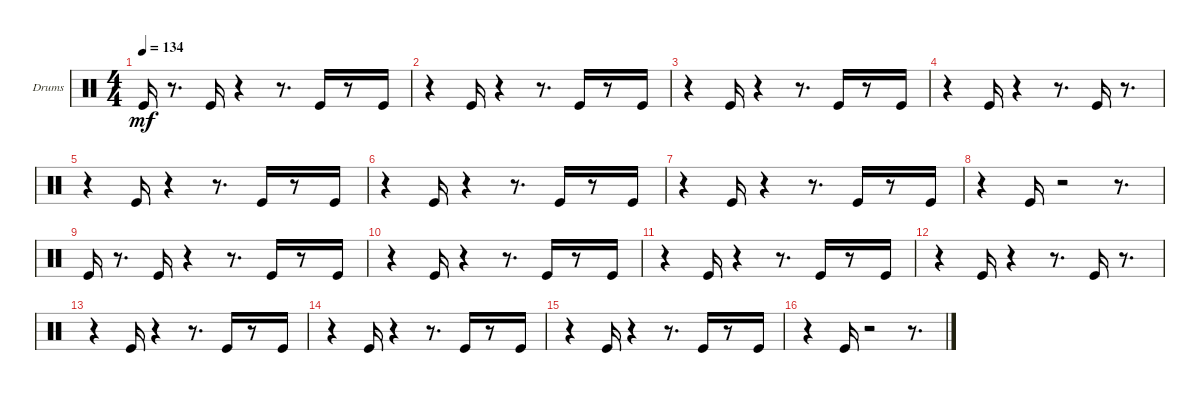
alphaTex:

\bracketExtendMode groupsimilarinstruments
\firstSystemTrackNameOrientation horizontal
\otherSystemsTrackNameOrientation horizontal
\track ("Drums" "Drums") {instrument percussion}
\staff {score}
\articulation defaults
\ts (4 4)
\tempo 134
\clef neutral
\ks c "Kick (hit)".16{dy mf}
r.8{d} "Kick (hit)".16 r.4 r.8{d} "Kick (hit)".16 r.8 "Kick (hit)".16 |
r.4 "Kick (hit)".16 r.4 r.8{d} "Kick (hit)".16 r.8 "Kick (hit)".16 |
r.4 "Kick (hit)".16 r.4 r.8{d} "Kick (hit)".16 r.8 "Kick (hit)".16 |
r.4 "Kick (hit)".16 r.4 r.8{d} "Kick (hit)".16 r.8{d} |
r.4 "Kick (hit)".16 r.4 r.8{d} "Kick (hit)".16 r.8 "Kick (hit)".16 |
r.4 "Kick (hit)".16 r.4 r.8{d} "Kick (hit)".16 r.8 "Kick (hit)".16 |
r.4 "Kick (hit)".16 r.4 r.8{d} "Kick (hit)".16 r.8 "Kick (hit)".16 |
r.4 "Kick (hit)".16 r.2 r.8{d} |
"Kick (hit)".16 r.8{d} "Kick (hit)".16 r.4 r.8{d} "Kick (hit)".16 r.8 "Kick (hit)".16 |
r.4 "Kick (hit)".16 r.4 r.8{d} "Kick (hit)".16 r.8 "Kick (hit)".16 |
r.4 "Kick (hit)".16 r.4 r.8{d} "Kick (hit)".16 r.8 "Kick (hit)".16 |
r.4 "Kick (hit)".16 r.4 r.8{d} "Kick (hit)".16 r.8{d} |
r.4 "Kick (hit)".16 r.4 r.8{d} "Kick (hit)".16 r.8 "Kick (hit)".16 |
r.4 "Kick (hit)".16 r.4 r.8{d} "Kick (hit)".16 r.8 "Kick (hit)".16 |
r.4 "Kick (hit)".16 r.4 r.8{d} "Kick (hit)".16 r.8 "Kick (hit)".16 |
r.4 "Kick (hit)".16 r.2 r.8{d}
